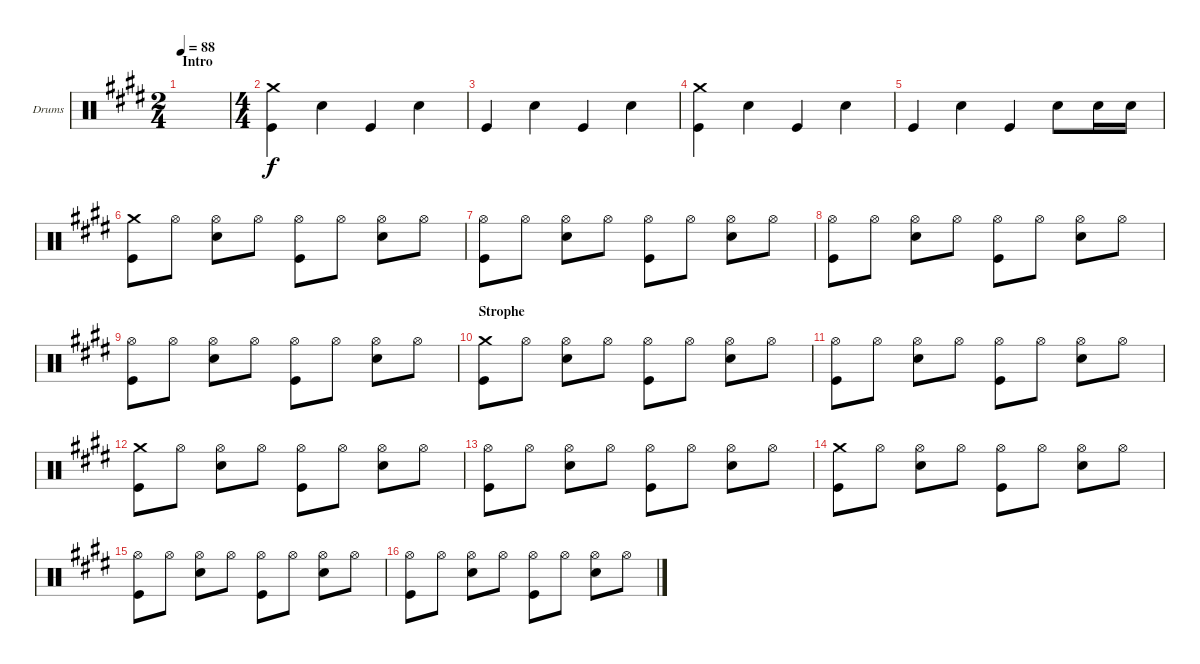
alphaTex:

\defaultSystemsLayout 4
\bracketExtendMode groupsimilarinstruments
\firstSystemTrackNameOrientation horizontal
\otherSystemsTrackNameOrientation horizontal
\track ("Drumkit" "Drums") {instrument percussion}
\staff {score}
\articulation defaults
\ts (2 4)
\section ("" "Intro")
\tempo 88
\clef neutral
\ks e
|
\ts (4 4)
("Kick (hit)" "Crash medium (hit)").4 "Snare (hit) 2".4 "Kick (hit)".4 "Snare (hit) 2".4 |
"Kick (hit)".4 "Snare (hit) 2".4 "Kick (hit)".4 "Snare (hit) 2".4 |
("Kick (hit)" "Crash medium (hit)").4 "Snare (hit) 2".4 "Kick (hit)".4 "Snare (hit) 2".4 |
"Kick (hit)".4 "Snare (hit) 2".4 "Kick (hit)".4 "Snare (hit) 2".8 "Snare (hit) 2".16 "Snare (hit) 2".16 |
("Kick (hit)" "Crash medium (hit)").8 "Hi-Hat (open)".8 ("Hi-Hat (open)" "Snare (hit) 2").8 "Hi-Hat (open)".8 ("Kick (hit)" "Hi-Hat (open)").8 "Hi-Hat (open)".8 ("Hi-Hat (open)" "Snare (hit) 2").8 "Hi-Hat (open)".8 |
("Kick (hit)" "Hi-Hat (open)").8 "Hi-Hat (open)".8 ("Hi-Hat (open)" "Snare (hit) 2").8 "Hi-Hat (open)".8 ("Kick (hit)" "Hi-Hat (open)").8 "Hi-Hat (open)".8 ("Hi-Hat (open)" "Snare (hit) 2").8 "Hi-Hat (open)".8 |
("Kick (hit)" "Hi-Hat (open)").8 "Hi-Hat (open)".8 ("Hi-Hat (open)" "Snare (hit) 2").8 "Hi-Hat (open)".8 ("Kick (hit)" "Hi-Hat (open)").8 "Hi-Hat (open)".8 ("Hi-Hat (open)" "Snare (hit) 2").8 "Hi-Hat (open)".8 |
("Kick (hit)" "Hi-Hat (open)").8 "Hi-Hat (open)".8 ("Hi-Hat (open)" "Snare (hit) 2").8 "Hi-Hat (open)".8 ("Kick (hit)" "Hi-Hat (open)").8 "Hi-Hat (open)".8 ("Hi-Hat (open)" "Snare (hit) 2").8 "Hi-Hat (open)".8 |
\section ("" "Strophe")
("Kick (hit)" "Crash medium (hit)").8 "Hi-Hat (open)".8 ("Hi-Hat (open)" "Snare (hit) 2").8 "Hi-Hat (open)".8 ("Kick (hit)" "Hi-Hat (open)").8 "Hi-Hat (open)".8 ("Hi-Hat (open)" "Snare (hit) 2").8 "Hi-Hat (open)".8 |
("Kick (hit)" "Hi-Hat (open)").8 "Hi-Hat (open)".8 ("Hi-Hat (open)" "Snare (hit) 2").8 "Hi-Hat (open)".8 ("Kick (hit)" "Hi-Hat (open)").8 "Hi-Hat (open)".8 ("Hi-Hat (open)" "Snare (hit) 2").8 "Hi-Hat (open)".8 |
("Kick (hit)" "Crash medium (hit)").8 "Hi-Hat (open)".8 ("Hi-Hat (open)" "Snare (hit) 2").8 "Hi-Hat (open)".8 ("Kick (hit)" "Hi-Hat (open)").8 "Hi-Hat (open)".8 ("Hi-Hat (open)" "Snare (hit) 2").8 "Hi-Hat (open)".8 |
("Kick (hit)" "Hi-Hat (open)").8 "Hi-Hat (open)".8 ("Hi-Hat (open)" "Snare (hit) 2").8 "Hi-Hat (open)".8 ("Kick (hit)" "Hi-Hat (open)").8 "Hi-Hat (open)".8 ("Hi-Hat (open)" "Snare (hit) 2").8 "Hi-Hat (open)".8 |
("Kick (hit)" "Crash medium (hit)").8 "Hi-Hat (open)".8 ("Hi-Hat (open)" "Snare (hit) 2").8 "Hi-Hat (open)".8 ("Kick (hit)" "Hi-Hat (open)").8 "Hi-Hat (open)".8 ("Hi-Hat (open)" "Snare (hit) 2").8 "Hi-Hat (open)".8 |
("Kick (hit)" "Hi-Hat (open)").8 "Hi-Hat (open)".8 ("Hi-Hat (open)" "Snare (hit) 2").8 "Hi-Hat (open)".8 ("Kick (hit)" "Hi-Hat (open)").8 "Hi-Hat (open)".8 ("Hi-Hat (open)" "Snare (hit) 2").8 "Hi-Hat (open)".8 |
("Kick (hit)" "Hi-Hat (open)").8 "Hi-Hat (open)".8 ("Hi-Hat (open)" "Snare (hit) 2").8 "Hi-Hat (open)".8 ("Kick (hit)" "Hi-Hat (open)").8 "Hi-Hat (open)".8 ("Hi-Hat (open)" "Snare (hit) 2").8 "Hi-Hat (open)".8
